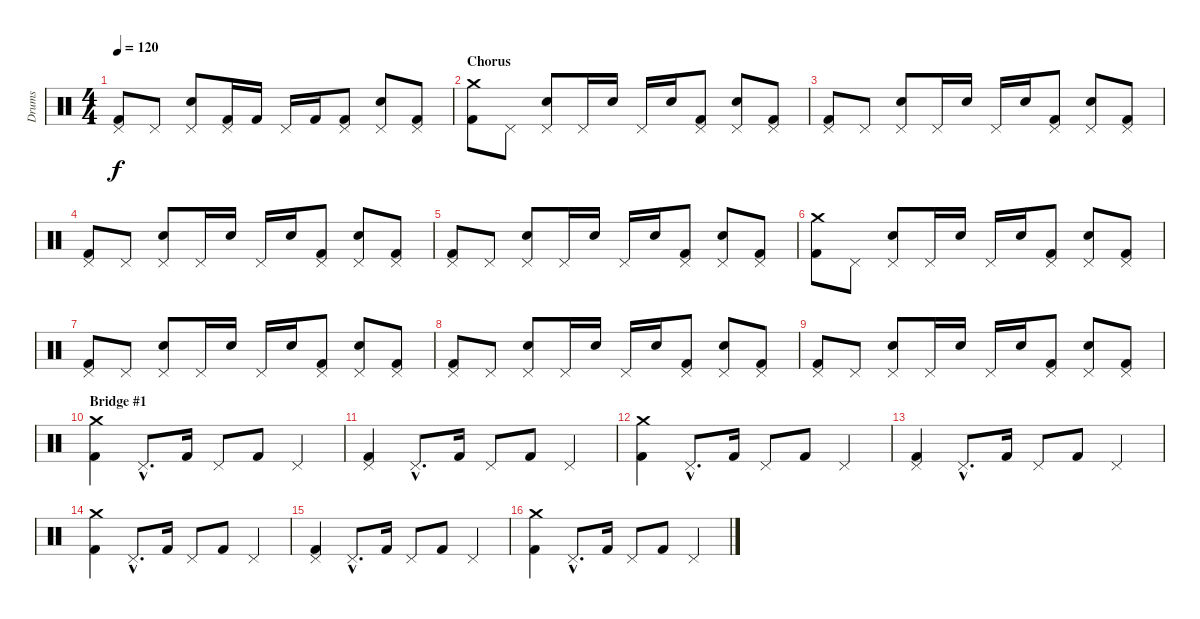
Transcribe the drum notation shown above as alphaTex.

\track ("Drums" "Drums") {instrument percussion}
\staff {score}
\articulation defaults
\ts (4 4)
\tempo 120
\clef neutral
\ks c
("Pedal Hi-Hat (hit)" "Kick (hit) 2").8{dy f} "Pedal Hi-Hat (hit)".8 ("Pedal Hi-Hat (hit)" "Electric Snare (hit)").8 ("Pedal Hi-Hat (hit)" "Kick (hit) 2").16 "Kick (hit) 2".16 "Pedal Hi-Hat (hit)".16 "Kick (hit) 2".16 ("Pedal Hi-Hat (hit)" "Kick (hit) 2").8 ("Pedal Hi-Hat (hit)" "Electric Snare (hit)").8 ("Pedal Hi-Hat (hit)" "Kick (hit) 2").8 |
\section ("" "Chorus")
("Crash medium (hit)" "Kick (hit) 2").8 "Pedal Hi-Hat (hit)".8 ("Pedal Hi-Hat (hit)" "Electric Snare (hit)").8 "Pedal Hi-Hat (hit)".16 "Electric Snare (hit)".16 "Pedal Hi-Hat (hit)".16 "Electric Snare (hit)".16 ("Pedal Hi-Hat (hit)" "Kick (hit) 2").8 ("Pedal Hi-Hat (hit)" "Electric Snare (hit)").8 ("Pedal Hi-Hat (hit)" "Kick (hit) 2").8 |
("Pedal Hi-Hat (hit)" "Kick (hit) 2").8 "Pedal Hi-Hat (hit)".8 ("Pedal Hi-Hat (hit)" "Electric Snare (hit)").8 "Pedal Hi-Hat (hit)".16 "Electric Snare (hit)".16 "Pedal Hi-Hat (hit)".16 "Electric Snare (hit)".16 ("Pedal Hi-Hat (hit)" "Kick (hit) 2").8 ("Pedal Hi-Hat (hit)" "Electric Snare (hit)").8 ("Pedal Hi-Hat (hit)" "Kick (hit) 2").8 |
("Pedal Hi-Hat (hit)" "Kick (hit) 2").8 "Pedal Hi-Hat (hit)".8 ("Pedal Hi-Hat (hit)" "Electric Snare (hit)").8 "Pedal Hi-Hat (hit)".16 "Electric Snare (hit)".16 "Pedal Hi-Hat (hit)".16 "Electric Snare (hit)".16 ("Pedal Hi-Hat (hit)" "Kick (hit) 2").8 ("Pedal Hi-Hat (hit)" "Electric Snare (hit)").8 ("Pedal Hi-Hat (hit)" "Kick (hit) 2").8 |
("Pedal Hi-Hat (hit)" "Kick (hit) 2").8 "Pedal Hi-Hat (hit)".8 ("Pedal Hi-Hat (hit)" "Electric Snare (hit)").8 "Pedal Hi-Hat (hit)".16 "Electric Snare (hit)".16 "Pedal Hi-Hat (hit)".16 "Electric Snare (hit)".16 ("Pedal Hi-Hat (hit)" "Kick (hit) 2").8 ("Pedal Hi-Hat (hit)" "Electric Snare (hit)").8 ("Pedal Hi-Hat (hit)" "Kick (hit) 2").8 |
("Crash medium (hit)" "Kick (hit) 2").8 "Pedal Hi-Hat (hit)".8 ("Pedal Hi-Hat (hit)" "Electric Snare (hit)").8 "Pedal Hi-Hat (hit)".16 "Electric Snare (hit)".16 "Pedal Hi-Hat (hit)".16 "Electric Snare (hit)".16 ("Pedal Hi-Hat (hit)" "Kick (hit) 2").8 ("Pedal Hi-Hat (hit)" "Electric Snare (hit)").8 ("Pedal Hi-Hat (hit)" "Kick (hit) 2").8 |
("Pedal Hi-Hat (hit)" "Kick (hit) 2").8 "Pedal Hi-Hat (hit)".8 ("Pedal Hi-Hat (hit)" "Electric Snare (hit)").8 "Pedal Hi-Hat (hit)".16 "Electric Snare (hit)".16 "Pedal Hi-Hat (hit)".16 "Electric Snare (hit)".16 ("Pedal Hi-Hat (hit)" "Kick (hit) 2").8 ("Pedal Hi-Hat (hit)" "Electric Snare (hit)").8 ("Pedal Hi-Hat (hit)" "Kick (hit) 2").8 |
("Pedal Hi-Hat (hit)" "Kick (hit) 2").8 "Pedal Hi-Hat (hit)".8 ("Pedal Hi-Hat (hit)" "Electric Snare (hit)").8 "Pedal Hi-Hat (hit)".16 "Electric Snare (hit)".16 "Pedal Hi-Hat (hit)".16 "Electric Snare (hit)".16 ("Pedal Hi-Hat (hit)" "Kick (hit) 2").8 ("Pedal Hi-Hat (hit)" "Electric Snare (hit)").8 ("Pedal Hi-Hat (hit)" "Kick (hit) 2").8 |
("Pedal Hi-Hat (hit)" "Kick (hit) 2").8 "Pedal Hi-Hat (hit)".8 ("Pedal Hi-Hat (hit)" "Electric Snare (hit)").8 "Pedal Hi-Hat (hit)".16 "Electric Snare (hit)".16 "Pedal Hi-Hat (hit)".16 "Electric Snare (hit)".16 ("Pedal Hi-Hat (hit)" "Kick (hit) 2").8 ("Pedal Hi-Hat (hit)" "Electric Snare (hit)").8 ("Pedal Hi-Hat (hit)" "Kick (hit) 2").8 |
\section ("" "Bridge #1")
("Crash medium (hit)" "Kick (hit) 2").4 "Pedal Hi-Hat (hit)"{hac}.8{d} "Kick (hit) 2".16 "Pedal Hi-Hat (hit)".8 "Kick (hit) 2".8 "Pedal Hi-Hat (hit)".4 |
("Pedal Hi-Hat (hit)" "Kick (hit) 2").4 "Pedal Hi-Hat (hit)"{hac}.8{d} "Kick (hit) 2".16 "Pedal Hi-Hat (hit)".8 "Kick (hit) 2".8 "Pedal Hi-Hat (hit)".4 |
("Crash medium (hit)" "Kick (hit) 2").4 "Pedal Hi-Hat (hit)"{hac}.8{d} "Kick (hit) 2".16 "Pedal Hi-Hat (hit)".8 "Kick (hit) 2".8 "Pedal Hi-Hat (hit)".4 |
("Pedal Hi-Hat (hit)" "Kick (hit) 2").4 "Pedal Hi-Hat (hit)"{hac}.8{d} "Kick (hit) 2".16 "Pedal Hi-Hat (hit)".8 "Kick (hit) 2".8 "Pedal Hi-Hat (hit)".4 |
("Crash medium (hit)" "Kick (hit) 2").4 "Pedal Hi-Hat (hit)"{hac}.8{d} "Kick (hit) 2".16 "Pedal Hi-Hat (hit)".8 "Kick (hit) 2".8 "Pedal Hi-Hat (hit)".4 |
("Pedal Hi-Hat (hit)" "Kick (hit) 2").4 "Pedal Hi-Hat (hit)"{hac}.8{d} "Kick (hit) 2".16 "Pedal Hi-Hat (hit)".8 "Kick (hit) 2".8 "Pedal Hi-Hat (hit)".4 |
("Crash medium (hit)" "Kick (hit) 2").4 "Pedal Hi-Hat (hit)"{hac}.8{d} "Kick (hit) 2".16 "Pedal Hi-Hat (hit)".8 "Kick (hit) 2".8 "Pedal Hi-Hat (hit)".4
